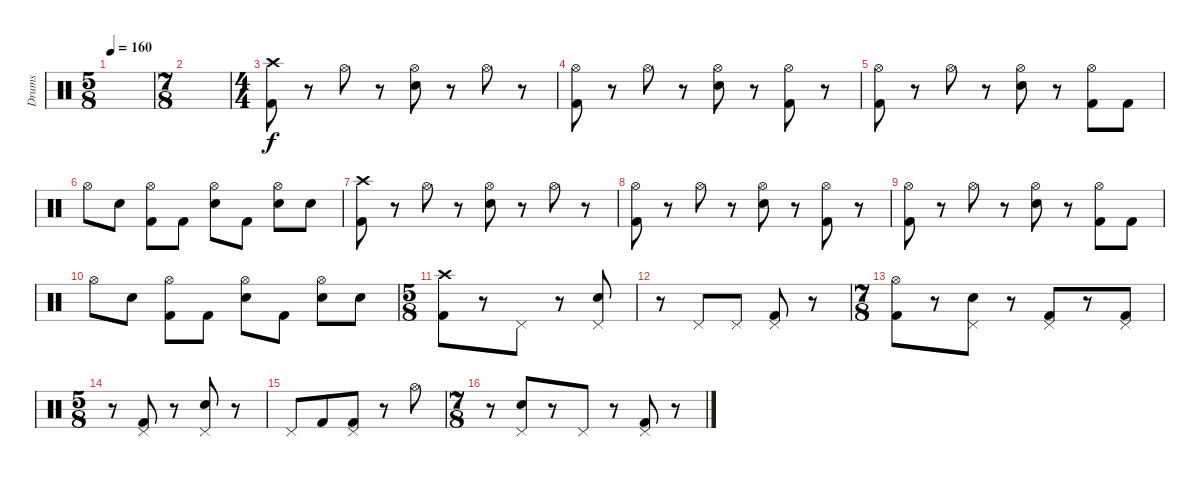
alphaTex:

\track ("Drums" "Drums") {instrument percussion}
\staff {score}
\articulation defaults
\ts (5 8)
\tempo 160
\clef neutral
\ks c
|
\ts (7 8)
|
\ts (4 4)
("Crash high (hit)" "Kick (hit) 2").8 r.8 "Hi-Hat (open)".8 r.8 ("Hi-Hat (open)" "Electric Snare (hit)").8 r.8 "Hi-Hat (open)".8 r.8 |
("Hi-Hat (open)" "Kick (hit) 2").8 r.8 "Hi-Hat (open)".8 r.8 ("Hi-Hat (open)" "Electric Snare (hit)").8 r.8 ("Hi-Hat (open)" "Kick (hit) 2").8 r.8 |
("Hi-Hat (open)" "Kick (hit) 2").8 r.8 "Hi-Hat (open)".8 r.8 ("Hi-Hat (open)" "Electric Snare (hit)").8 r.8 ("Hi-Hat (open)" "Kick (hit) 2").8 "Kick (hit) 2".8 |
"Hi-Hat (open)".8 "Electric Snare (hit)".8 ("Hi-Hat (open)" "Kick (hit) 2").8 "Kick (hit) 2".8 ("Hi-Hat (open)" "Electric Snare (hit)").8 "Kick (hit) 2".8 ("Hi-Hat (open)" "Electric Snare (hit)").8 "Electric Snare (hit)".8 |
("Crash high (hit)" "Kick (hit) 2").8 r.8 "Hi-Hat (open)".8 r.8 ("Hi-Hat (open)" "Electric Snare (hit)").8 r.8 "Hi-Hat (open)".8 r.8 |
("Hi-Hat (open)" "Kick (hit) 2").8 r.8 "Hi-Hat (open)".8 r.8 ("Hi-Hat (open)" "Electric Snare (hit)").8 r.8 ("Hi-Hat (open)" "Kick (hit) 2").8 r.8 |
("Hi-Hat (open)" "Kick (hit) 2").8 r.8 "Hi-Hat (open)".8 r.8 ("Hi-Hat (open)" "Electric Snare (hit)").8 r.8 ("Hi-Hat (open)" "Kick (hit) 2").8 "Kick (hit) 2".8 |
"Hi-Hat (open)".8 "Electric Snare (hit)".8 ("Hi-Hat (open)" "Kick (hit) 2").8 "Kick (hit) 2".8 ("Hi-Hat (open)" "Electric Snare (hit)").8 "Kick (hit) 2".8 ("Hi-Hat (open)" "Electric Snare (hit)").8 "Electric Snare (hit)".8 |
\ts (5 8)
("Crash high (hit)" "Kick (hit) 2").8 r.8 "Pedal Hi-Hat (hit)".8 r.8 ("Pedal Hi-Hat (hit)" "Electric Snare (hit)").8 |
r.8 "Pedal Hi-Hat (hit)".8 "Pedal Hi-Hat (hit)".8 ("Pedal Hi-Hat (hit)" "Kick (hit) 2").8 r.8 |
\ts (7 8)
("Hi-Hat (open)" "Kick (hit) 2").8 r.8 ("Pedal Hi-Hat (hit)" "Electric Snare (hit)").8 r.8 ("Pedal Hi-Hat (hit)" "Kick (hit) 2").8 r.8 ("Pedal Hi-Hat (hit)" "Kick (hit) 2").8 |
\ts (5 8)
r.8 ("Pedal Hi-Hat (hit)" "Kick (hit) 2").8 r.8 ("Pedal Hi-Hat (hit)" "Electric Snare (hit)").8 r.8 |
"Pedal Hi-Hat (hit)".8 "Kick (hit) 2".8 ("Pedal Hi-Hat (hit)" "Kick (hit) 2").8 r.8 "Hi-Hat (open)".8 |
\ts (7 8)
r.8 ("Pedal Hi-Hat (hit)" "Electric Snare (hit)").8 r.8 "Pedal Hi-Hat (hit)".8 r.8 ("Pedal Hi-Hat (hit)" "Kick (hit) 2").8 r.8
